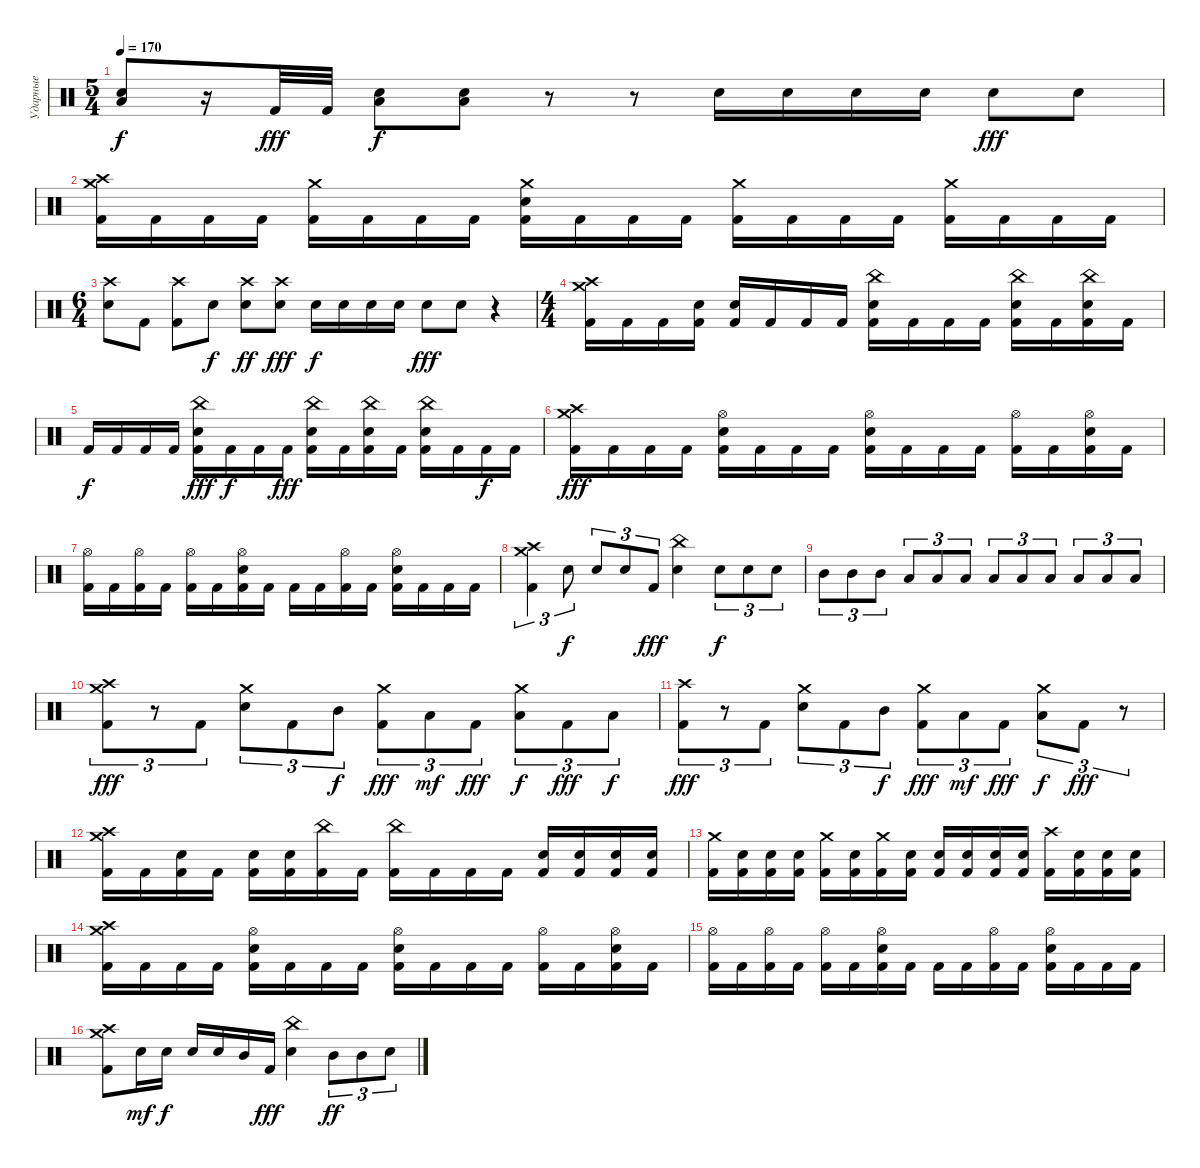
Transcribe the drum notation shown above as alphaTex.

\track ("Ударные" "Ударные") {instrument percussion}
\staff {score}
\articulation defaults
\ts (5 4)
\tempo 170
\clef neutral
\ks c
("Low Floor Tom (hit)" "Electric Snare (hit)").8{dy f} r.16 "Kick (hit) 2".32{dy fff} "Kick (hit) 2".32 ("Low Floor Tom (hit)" "Electric Snare (hit)").8{dy f} ("Low Floor Tom (hit)" "Electric Snare (hit)").8 r.8 r.8 "Electric Snare (hit)".16 "Electric Snare (hit)".16 "Electric Snare (hit)".16 "Electric Snare (hit)".16 "Electric Snare (hit)".8{dy fff} "Electric Snare (hit)".8 |
("Crash medium (hit)" "Crash high (hit)" "Kick (hit) 2").16 "Kick (hit) 2".16 "Kick (hit) 2".16 "Kick (hit) 2".16 ("Crash medium (hit)" "Kick (hit) 2").16 "Kick (hit) 2".16 "Kick (hit) 2".16 "Kick (hit) 2".16 ("Crash medium (hit)" "Electric Snare (hit)" "Kick (hit) 2").16 "Kick (hit) 2".16 "Kick (hit) 2".16 "Kick (hit) 2".16 ("Crash medium (hit)" "Kick (hit) 2").16 "Kick (hit) 2".16 "Kick (hit) 2".16 "Kick (hit) 2".16 ("Crash medium (hit)" "Kick (hit) 2").16 "Kick (hit) 2".16 "Kick (hit) 2".16 "Kick (hit) 2".16 |
\ts (6 4)
("Crash high (hit)" "Electric Snare (hit)").8 "Kick (hit) 2".8 ("Crash high (hit)" "Kick (hit) 2").8 "Electric Snare (hit)".8{dy f} ("Crash high (hit)" "Electric Snare (hit)").8{dy ff} ("Crash high (hit)" "Electric Snare (hit)").8{dy fff} "Electric Snare (hit)".16{dy f} "Electric Snare (hit)".16 "Electric Snare (hit)".16 "Electric Snare (hit)".16 "Electric Snare (hit)".8{dy fff} "Electric Snare (hit)".8 r.4 |
\ts (4 4)
("Crash medium (hit)" "Crash high (hit)" "Kick (hit) 2").16 "Kick (hit) 2".16 "Kick (hit) 2".16 ("Electric Snare (hit)" "Kick (hit) 2").16 ("Electric Snare (hit)" "Kick (hit) 2").16 "Kick (hit) 2".16 "Kick (hit) 2".16 "Kick (hit) 2".16 ("China (hit)" "Electric Snare (hit)" "Kick (hit) 2").16 "Kick (hit) 2".16 "Kick (hit) 2".16 "Kick (hit) 2".16 ("China (hit)" "Electric Snare (hit)" "Kick (hit) 2").16 "Kick (hit) 2".16 ("China (hit)" "Electric Snare (hit)" "Kick (hit) 2").16 "Kick (hit) 2".16 |
"Kick (hit) 2".16{dy f} "Kick (hit) 2".16 "Kick (hit) 2".16 "Kick (hit) 2".16 ("China (hit)" "Electric Snare (hit)" "Kick (hit) 2").16{dy fff} "Kick (hit) 2".16{dy f} "Kick (hit) 2".16 "Kick (hit) 2".16{dy fff} ("China (hit)" "Electric Snare (hit)" "Kick (hit) 2").16 "Kick (hit) 2".16 ("China (hit)" "Electric Snare (hit)" "Kick (hit) 2").16 "Kick (hit) 2".16 ("China (hit)" "Electric Snare (hit)" "Kick (hit) 2").16 "Kick (hit) 2".16 "Kick (hit) 2".16{dy f} "Kick (hit) 2".16 |
("Crash medium (hit)" "Crash high (hit)" "Kick (hit) 2").16{dy fff} "Kick (hit) 2".16 "Kick (hit) 2".16 "Kick (hit) 2".16 ("Hi-Hat (open)" "Electric Snare (hit)" "Kick (hit) 2").16 "Kick (hit) 2".16 "Kick (hit) 2".16 "Kick (hit) 2".16 ("Hi-Hat (open)" "Electric Snare (hit)" "Kick (hit) 2").16 "Kick (hit) 2".16 "Kick (hit) 2".16 "Kick (hit) 2".16 ("Hi-Hat (open)" "Kick (hit) 2").16 "Kick (hit) 2".16 ("Hi-Hat (open)" "Electric Snare (hit)" "Kick (hit) 2").16 "Kick (hit) 2".16 |
("Hi-Hat (open)" "Kick (hit) 2").16 "Kick (hit) 2".16 ("Hi-Hat (open)" "Kick (hit) 2").16 "Kick (hit) 2".16 ("Hi-Hat (open)" "Kick (hit) 2").16 "Kick (hit) 2".16 ("Hi-Hat (open)" "Electric Snare (hit)" "Kick (hit) 2").16 "Kick (hit) 2".16 "Kick (hit) 2".16 "Kick (hit) 2".16 ("Hi-Hat (open)" "Kick (hit) 2").16 "Kick (hit) 2".16 ("Hi-Hat (open)" "Electric Snare (hit)" "Kick (hit) 2").16 "Kick (hit) 2".16 "Kick (hit) 2".16 "Kick (hit) 2".16 |
("Crash medium (hit)" "Crash high (hit)" "Kick (hit) 2").4{tu (3 2)} "Electric Snare (hit)".8{tu (3 2) dy f} "Electric Snare (hit)".8{tu (3 2)} "Electric Snare (hit)".8{tu (3 2)} "Kick (hit) 2".8{tu (3 2) dy fff} ("China (hit)" "Electric Snare (hit)").4 "Electric Snare (hit)".8{tu (3 2) dy f} "Electric Snare (hit)".8{tu (3 2)} "Electric Snare (hit)".8{tu (3 2)} |
"Mid Tom (hit)".8{tu (3 2)} "Mid Tom (hit)".8{tu (3 2)} "Mid Tom (hit)".8{tu (3 2)} "Low Tom (hit)".8{tu (3 2)} "Low Tom (hit)".8{tu (3 2)} "Low Tom (hit)".8{tu (3 2)} "Low Tom (hit)".8{tu (3 2)} "Low Floor Tom (hit)".8{tu (3 2)} "Low Floor Tom (hit)".8{tu (3 2)} "Low Floor Tom (hit)".8{tu (3 2)} "Low Floor Tom (hit)".8{tu (3 2)} "Low Floor Tom (hit)".8{tu (3 2)} |
("Crash medium (hit)" "Crash high (hit)" "Kick (hit) 2").8{tu (3 2) dy fff} r.8{tu (3 2)} "Kick (hit) 2".8{tu (3 2)} ("Crash medium (hit)" "Electric Snare (hit)").8{tu (3 2)} "Kick (hit) 2".8{tu (3 2)} "Mid Tom (hit)".8{tu (3 2) dy f} ("Crash medium (hit)" "Kick (hit) 2").8{tu (3 2) dy fff} "Low Tom (hit)".8{tu (3 2) dy mf} "Kick (hit) 2".8{tu (3 2) dy fff} ("Crash medium (hit)" "Low Floor Tom (hit)").8{tu (3 2) dy f} "Kick (hit) 2".8{tu (3 2) dy fff} "Low Floor Tom (hit)".8{tu (3 2) dy f} |
("Crash high (hit)" "Kick (hit) 2").8{tu (3 2) dy fff} r.8{tu (3 2)} "Kick (hit) 2".8{tu (3 2)} ("Crash medium (hit)" "Electric Snare (hit)").8{tu (3 2)} "Kick (hit) 2".8{tu (3 2)} "Mid Tom (hit)".8{tu (3 2) dy f} ("Crash medium (hit)" "Kick (hit) 2").8{tu (3 2) dy fff} "Low Tom (hit)".8{tu (3 2) dy mf} "Kick (hit) 2".8{tu (3 2) dy fff} ("Crash medium (hit)" "Low Floor Tom (hit)").8{tu (3 2) dy f} "Kick (hit) 2".8{tu (3 2) dy fff} r.8{tu (3 2)} |
("Crash medium (hit)" "Crash high (hit)" "Kick (hit) 2").16 "Kick (hit) 2".16 ("Electric Snare (hit)" "Kick (hit) 2").16 "Kick (hit) 2".16 ("Electric Snare (hit)" "Kick (hit) 2").16 ("Electric Snare (hit)" "Kick (hit) 2").16 ("China (hit)" "Kick (hit) 2").16 "Kick (hit) 2".16 ("China (hit)" "Kick (hit) 2").16 "Kick (hit) 2".16 "Kick (hit) 2".16 "Kick (hit) 2".16 ("Electric Snare (hit)" "Kick (hit) 2").16 ("Electric Snare (hit)" "Kick (hit) 2").16 ("Electric Snare (hit)" "Kick (hit) 2").16 ("Electric Snare (hit)" "Kick (hit) 2").16 |
("Crash medium (hit)" "Kick (hit) 2").16 ("Electric Snare (hit)" "Kick (hit) 2").16 ("Electric Snare (hit)" "Kick (hit) 2").16 ("Electric Snare (hit)" "Kick (hit) 2").16 ("Crash medium (hit)" "Kick (hit) 2").16 ("Electric Snare (hit)" "Kick (hit) 2").16 ("Crash medium (hit)" "Kick (hit) 2").16 ("Electric Snare (hit)" "Kick (hit) 2").16 ("Electric Snare (hit)" "Kick (hit) 2").16 ("Electric Snare (hit)" "Kick (hit) 2").16 ("Electric Snare (hit)" "Kick (hit) 2").16 ("Electric Snare (hit)" "Kick (hit) 2").16 ("Crash high (hit)" "Kick (hit) 2").16 ("Electric Snare (hit)" "Kick (hit) 2").16 ("Electric Snare (hit)" "Kick (hit) 2").16 ("Electric Snare (hit)" "Kick (hit) 2").16 |
("Crash medium (hit)" "Crash high (hit)" "Kick (hit) 2").16 "Kick (hit) 2".16 "Kick (hit) 2".16 "Kick (hit) 2".16 ("Hi-Hat (open)" "Electric Snare (hit)" "Kick (hit) 2").16 "Kick (hit) 2".16 "Kick (hit) 2".16 "Kick (hit) 2".16 ("Hi-Hat (open)" "Electric Snare (hit)" "Kick (hit) 2").16 "Kick (hit) 2".16 "Kick (hit) 2".16 "Kick (hit) 2".16 ("Hi-Hat (open)" "Kick (hit) 2").16 "Kick (hit) 2".16 ("Hi-Hat (open)" "Electric Snare (hit)" "Kick (hit) 2").16 "Kick (hit) 2".16 |
("Hi-Hat (open)" "Kick (hit) 2").16 "Kick (hit) 2".16 ("Hi-Hat (open)" "Kick (hit) 2").16 "Kick (hit) 2".16 ("Hi-Hat (open)" "Kick (hit) 2").16 "Kick (hit) 2".16 ("Hi-Hat (open)" "Electric Snare (hit)" "Kick (hit) 2").16 "Kick (hit) 2".16 "Kick (hit) 2".16 "Kick (hit) 2".16 ("Hi-Hat (open)" "Kick (hit) 2").16 "Kick (hit) 2".16 ("Hi-Hat (open)" "Electric Snare (hit)" "Kick (hit) 2").16 "Kick (hit) 2".16 "Kick (hit) 2".16 "Kick (hit) 2".16 |
("Crash medium (hit)" "Crash high (hit)" "Kick (hit) 2").8 "Electric Snare (hit)".16{dy mf} "Electric Snare (hit)".16{dy f} "Electric Snare (hit)".16 "Electric Snare (hit)".16 "Mid Tom (hit)".16 "Kick (hit) 2".16{dy fff} ("China (hit)" "Electric Snare (hit)").4 "Mid Tom (hit)".8{tu (3 2) dy ff} "Mid Tom (hit)".8{tu (3 2)} "Electric Snare (hit)".8{tu (3 2)}
